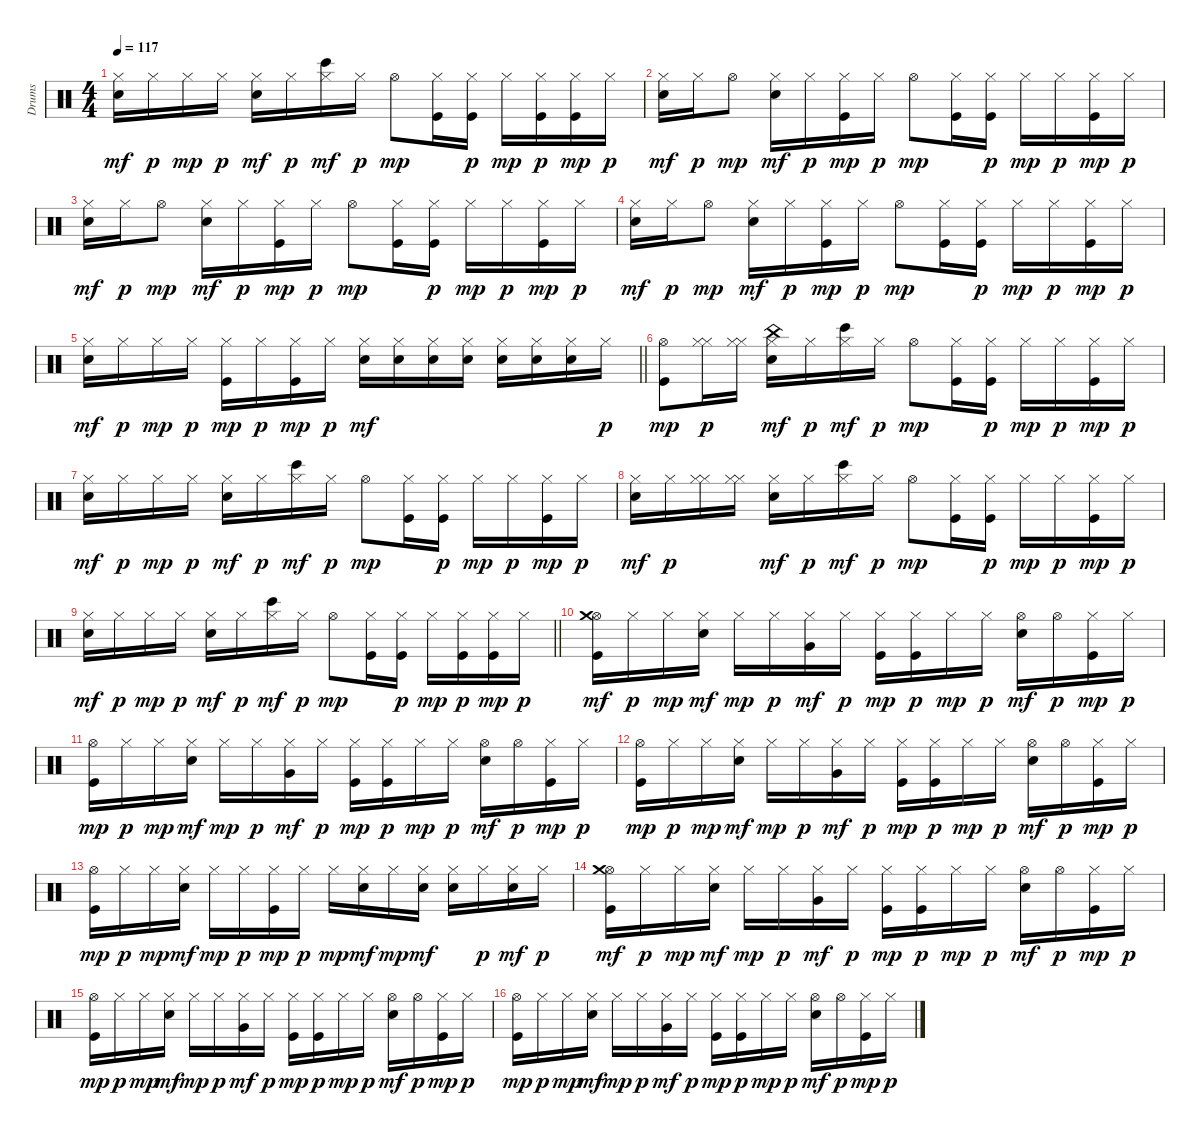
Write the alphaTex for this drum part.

\track ("Drums" "Drums") {instrument percussion}
\staff {score}
\articulation defaults
\ts (4 4)
\tempo 117
\clef neutral
\ks c
("Hi-Hat (closed)" "Electric Snare (hit)").16{dy mf} "Hi-Hat (closed)".16{dy p} "Hi-Hat (closed)".16{dy mp} "Hi-Hat (closed)".16{dy p} ("Hi-Hat (closed)" "Electric Snare (hit)").16{dy mf} "Hi-Hat (closed)".16{dy p} ("Hi-Hat (closed)" "Bongo High (hit)").16{dy mf} "Hi-Hat (closed)".16{dy p} "Hi-Hat (open)".8{dy mp} ("Hi-Hat (closed)" "Kick (hit)").16 ("Hi-Hat (closed)" "Kick (hit)").16{dy p} "Hi-Hat (closed)".16{dy mp} ("Hi-Hat (closed)" "Kick (hit)").16{dy p} ("Hi-Hat (closed)" "Kick (hit)").16{dy mp} "Hi-Hat (closed)".16{dy p} |
("Hi-Hat (closed)" "Electric Snare (hit)").16{dy mf} "Hi-Hat (closed)".16{dy p} "Hi-Hat (open)".8{dy mp} ("Hi-Hat (closed)" "Electric Snare (hit)").16{dy mf} "Hi-Hat (closed)".16{dy p} ("Hi-Hat (closed)" "Kick (hit)").16{dy mp} "Hi-Hat (closed)".16{dy p} "Hi-Hat (open)".8{dy mp} ("Hi-Hat (closed)" "Kick (hit)").16 ("Hi-Hat (closed)" "Kick (hit)").16{dy p} "Hi-Hat (closed)".16{dy mp} "Hi-Hat (closed)".16{dy p} ("Hi-Hat (closed)" "Kick (hit)").16{dy mp} "Hi-Hat (closed)".16{dy p} |
("Hi-Hat (closed)" "Electric Snare (hit)").16{dy mf} "Hi-Hat (closed)".16{dy p} "Hi-Hat (open)".8{dy mp} ("Hi-Hat (closed)" "Electric Snare (hit)").16{dy mf} "Hi-Hat (closed)".16{dy p} ("Hi-Hat (closed)" "Kick (hit)").16{dy mp} "Hi-Hat (closed)".16{dy p} "Hi-Hat (open)".8{dy mp} ("Hi-Hat (closed)" "Kick (hit)").16 ("Hi-Hat (closed)" "Kick (hit)").16{dy p} "Hi-Hat (closed)".16{dy mp} "Hi-Hat (closed)".16{dy p} ("Hi-Hat (closed)" "Kick (hit)").16{dy mp} "Hi-Hat (closed)".16{dy p} |
("Hi-Hat (closed)" "Electric Snare (hit)").16{dy mf} "Hi-Hat (closed)".16{dy p} "Hi-Hat (open)".8{dy mp} ("Hi-Hat (closed)" "Electric Snare (hit)").16{dy mf} "Hi-Hat (closed)".16{dy p} ("Hi-Hat (closed)" "Kick (hit)").16{dy mp} "Hi-Hat (closed)".16{dy p} "Hi-Hat (open)".8{dy mp} ("Hi-Hat (closed)" "Kick (hit)").16 ("Hi-Hat (closed)" "Kick (hit)").16{dy p} "Hi-Hat (closed)".16{dy mp} "Hi-Hat (closed)".16{dy p} ("Hi-Hat (closed)" "Kick (hit)").16{dy mp} "Hi-Hat (closed)".16{dy p} |
\barLineRight lightlight
("Hi-Hat (closed)" "Electric Snare (hit)").16{dy mf} "Hi-Hat (closed)".16{dy p} "Hi-Hat (closed)".16{dy mp} "Hi-Hat (closed)".16{dy p} ("Hi-Hat (closed)" "Kick (hit)").16{dy mp} "Hi-Hat (closed)".16{dy p} ("Hi-Hat (closed)" "Kick (hit)").16{dy mp} "Hi-Hat (closed)".16{dy p} ("Hi-Hat (closed)" "Electric Snare (hit)").16{dy mf} ("Hi-Hat (closed)" "Electric Snare (hit)").16 ("Hi-Hat (closed)" "Electric Snare (hit)").16 ("Hi-Hat (closed)" "Electric Snare (hit)").16 ("Hi-Hat (closed)" "Electric Snare (hit)").16 ("Hi-Hat (closed)" "Electric Snare (hit)").16 ("Hi-Hat (closed)" "Electric Snare (hit)").16 "Hi-Hat (closed)".16{dy p} |
("Hi-Hat (open)" "Kick (hit)").8{dy mp} ("Hi-Hat (closed)" "Hi-Hat (closed)").16{dy p} ("Hi-Hat (closed)" "Hi-Hat (closed)").16 ("Hi-Hat (closed)" "China (hit)" "Electric Snare (hit)").16{dy mf} "Hi-Hat (closed)".16{dy p} ("Hi-Hat (closed)" "Bongo High (hit)").16{dy mf} "Hi-Hat (closed)".16{dy p} "Hi-Hat (open)".8{dy mp} ("Hi-Hat (closed)" "Kick (hit)").16 ("Hi-Hat (closed)" "Kick (hit)").16{dy p} "Hi-Hat (closed)".16{dy mp} "Hi-Hat (closed)".16{dy p} ("Hi-Hat (closed)" "Kick (hit)").16{dy mp} "Hi-Hat (closed)".16{dy p} |
("Hi-Hat (closed)" "Electric Snare (hit)").16{dy mf} "Hi-Hat (closed)".16{dy p} "Hi-Hat (closed)".16{dy mp} "Hi-Hat (closed)".16{dy p} ("Hi-Hat (closed)" "Electric Snare (hit)").16{dy mf} "Hi-Hat (closed)".16{dy p} ("Hi-Hat (closed)" "Bongo High (hit)").16{dy mf} "Hi-Hat (closed)".16{dy p} "Hi-Hat (open)".8{dy mp} ("Hi-Hat (closed)" "Kick (hit)").16 ("Hi-Hat (closed)" "Kick (hit)").16{dy p} "Hi-Hat (closed)".16{dy mp} "Hi-Hat (closed)".16{dy p} ("Hi-Hat (closed)" "Kick (hit)").16{dy mp} "Hi-Hat (closed)".16{dy p} |
("Hi-Hat (closed)" "Electric Snare (hit)").16{dy mf} "Hi-Hat (closed)".16{dy p} ("Hi-Hat (closed)" "Hi-Hat (closed)").16 ("Hi-Hat (closed)" "Hi-Hat (closed)").16 ("Hi-Hat (closed)" "Electric Snare (hit)").16{dy mf} "Hi-Hat (closed)".16{dy p} ("Hi-Hat (closed)" "Bongo High (hit)").16{dy mf} "Hi-Hat (closed)".16{dy p} "Hi-Hat (open)".8{dy mp} ("Hi-Hat (closed)" "Kick (hit)").16 ("Hi-Hat (closed)" "Kick (hit)").16{dy p} "Hi-Hat (closed)".16{dy mp} "Hi-Hat (closed)".16{dy p} ("Hi-Hat (closed)" "Kick (hit)").16{dy mp} "Hi-Hat (closed)".16{dy p} |
\barLineRight lightlight
("Hi-Hat (closed)" "Electric Snare (hit)").16{dy mf} "Hi-Hat (closed)".16{dy p} "Hi-Hat (closed)".16{dy mp} "Hi-Hat (closed)".16{dy p} ("Hi-Hat (closed)" "Electric Snare (hit)").16{dy mf} "Hi-Hat (closed)".16{dy p} ("Hi-Hat (closed)" "Bongo High (hit)").16{dy mf} "Hi-Hat (closed)".16{dy p} "Hi-Hat (open)".8{dy mp} ("Hi-Hat (closed)" "Kick (hit)").16 ("Hi-Hat (closed)" "Kick (hit)").16{dy p} "Hi-Hat (closed)".16{dy mp} ("Hi-Hat (closed)" "Kick (hit)").16{dy p} ("Hi-Hat (closed)" "Kick (hit)").16{dy mp} "Hi-Hat (closed)".16{dy p} |
("Hi-Hat (open)" "Crash medium (hit)" "Kick (hit)").16{dy mf} "Hi-Hat (closed)".16{dy p} "Hi-Hat (closed)".16{dy mp} ("Hi-Hat (closed)" "Electric Snare (hit)").16{dy mf} "Hi-Hat (closed)".16{dy mp} "Hi-Hat (closed)".16{dy p} ("Hi-Hat (closed)" "Very Low Tom (hit)").16{dy mf} "Hi-Hat (closed)".16{dy p} ("Hi-Hat (closed)" "Kick (hit)").16{dy mp} ("Hi-Hat (closed)" "Kick (hit)").16{dy p} "Hi-Hat (closed)".16{dy mp} "Hi-Hat (closed)".16{dy p} ("Hi-Hat (open)" "Electric Snare (hit)").16{dy mf} "Hi-Hat (open)".16{dy p} ("Hi-Hat (closed)" "Kick (hit)").16{dy mp} "Hi-Hat (closed)".16{dy p} |
("Hi-Hat (open)" "Kick (hit)").16{dy mp} "Hi-Hat (closed)".16{dy p} "Hi-Hat (closed)".16{dy mp} ("Hi-Hat (closed)" "Electric Snare (hit)").16{dy mf} "Hi-Hat (closed)".16{dy mp} "Hi-Hat (closed)".16{dy p} ("Hi-Hat (closed)" "Very Low Tom (hit)").16{dy mf} "Hi-Hat (closed)".16{dy p} ("Hi-Hat (closed)" "Kick (hit)").16{dy mp} ("Hi-Hat (closed)" "Kick (hit)").16{dy p} "Hi-Hat (closed)".16{dy mp} "Hi-Hat (closed)".16{dy p} ("Hi-Hat (open)" "Electric Snare (hit)").16{dy mf} "Hi-Hat (open)".16{dy p} ("Hi-Hat (closed)" "Kick (hit)").16{dy mp} "Hi-Hat (closed)".16{dy p} |
("Hi-Hat (open)" "Kick (hit)").16{dy mp} "Hi-Hat (closed)".16{dy p} "Hi-Hat (closed)".16{dy mp} ("Hi-Hat (closed)" "Electric Snare (hit)").16{dy mf} "Hi-Hat (closed)".16{dy mp} "Hi-Hat (closed)".16{dy p} ("Hi-Hat (closed)" "Very Low Tom (hit)").16{dy mf} "Hi-Hat (closed)".16{dy p} ("Hi-Hat (closed)" "Kick (hit)").16{dy mp} ("Hi-Hat (closed)" "Kick (hit)").16{dy p} "Hi-Hat (closed)".16{dy mp} "Hi-Hat (closed)".16{dy p} ("Hi-Hat (open)" "Electric Snare (hit)").16{dy mf} "Hi-Hat (open)".16{dy p} ("Hi-Hat (closed)" "Kick (hit)").16{dy mp} "Hi-Hat (closed)".16{dy p} |
("Hi-Hat (open)" "Kick (hit)").16{dy mp} "Hi-Hat (closed)".16{dy p} "Hi-Hat (closed)".16{dy mp} ("Hi-Hat (closed)" "Electric Snare (hit)").16{dy mf} "Hi-Hat (closed)".16{dy mp} "Hi-Hat (closed)".16{dy p} ("Hi-Hat (closed)" "Kick (hit)").16{dy mp} "Hi-Hat (closed)".16{dy p} "Hi-Hat (closed)".16{dy mp} ("Hi-Hat (closed)" "Electric Snare (hit)").16{dy mf} "Hi-Hat (closed)".16{dy mp} ("Hi-Hat (closed)" "Electric Snare (hit)").16{dy mf} ("Hi-Hat (closed)" "Electric Snare (hit)").16 "Hi-Hat (closed)".16{dy p} ("Hi-Hat (closed)" "Electric Snare (hit)").16{dy mf} "Hi-Hat (closed)".16{dy p} |
("Hi-Hat (open)" "Crash medium (hit)" "Kick (hit)").16{dy mf} "Hi-Hat (closed)".16{dy p} "Hi-Hat (closed)".16{dy mp} ("Hi-Hat (closed)" "Electric Snare (hit)").16{dy mf} "Hi-Hat (closed)".16{dy mp} "Hi-Hat (closed)".16{dy p} ("Hi-Hat (closed)" "Very Low Tom (hit)").16{dy mf} "Hi-Hat (closed)".16{dy p} ("Hi-Hat (closed)" "Kick (hit)").16{dy mp} ("Hi-Hat (closed)" "Kick (hit)").16{dy p} "Hi-Hat (closed)".16{dy mp} "Hi-Hat (closed)".16{dy p} ("Hi-Hat (open)" "Electric Snare (hit)").16{dy mf} "Hi-Hat (open)".16{dy p} ("Hi-Hat (closed)" "Kick (hit)").16{dy mp} "Hi-Hat (closed)".16{dy p} |
("Hi-Hat (open)" "Kick (hit)").16{dy mp} "Hi-Hat (closed)".16{dy p} "Hi-Hat (closed)".16{dy mp} ("Hi-Hat (closed)" "Electric Snare (hit)").16{dy mf} "Hi-Hat (closed)".16{dy mp} "Hi-Hat (closed)".16{dy p} ("Hi-Hat (closed)" "Very Low Tom (hit)").16{dy mf} "Hi-Hat (closed)".16{dy p} ("Hi-Hat (closed)" "Kick (hit)").16{dy mp} ("Hi-Hat (closed)" "Kick (hit)").16{dy p} "Hi-Hat (closed)".16{dy mp} "Hi-Hat (closed)".16{dy p} ("Hi-Hat (open)" "Electric Snare (hit)").16{dy mf} "Hi-Hat (open)".16{dy p} ("Hi-Hat (closed)" "Kick (hit)").16{dy mp} "Hi-Hat (closed)".16{dy p} |
("Hi-Hat (open)" "Kick (hit)").16{dy mp} "Hi-Hat (closed)".16{dy p} "Hi-Hat (closed)".16{dy mp} ("Hi-Hat (closed)" "Electric Snare (hit)").16{dy mf} "Hi-Hat (closed)".16{dy mp} "Hi-Hat (closed)".16{dy p} ("Hi-Hat (closed)" "Very Low Tom (hit)").16{dy mf} "Hi-Hat (closed)".16{dy p} ("Hi-Hat (closed)" "Kick (hit)").16{dy mp} ("Hi-Hat (closed)" "Kick (hit)").16{dy p} "Hi-Hat (closed)".16{dy mp} "Hi-Hat (closed)".16{dy p} ("Hi-Hat (open)" "Electric Snare (hit)").16{dy mf} "Hi-Hat (open)".16{dy p} ("Hi-Hat (closed)" "Kick (hit)").16{dy mp} "Hi-Hat (closed)".16{dy p}
